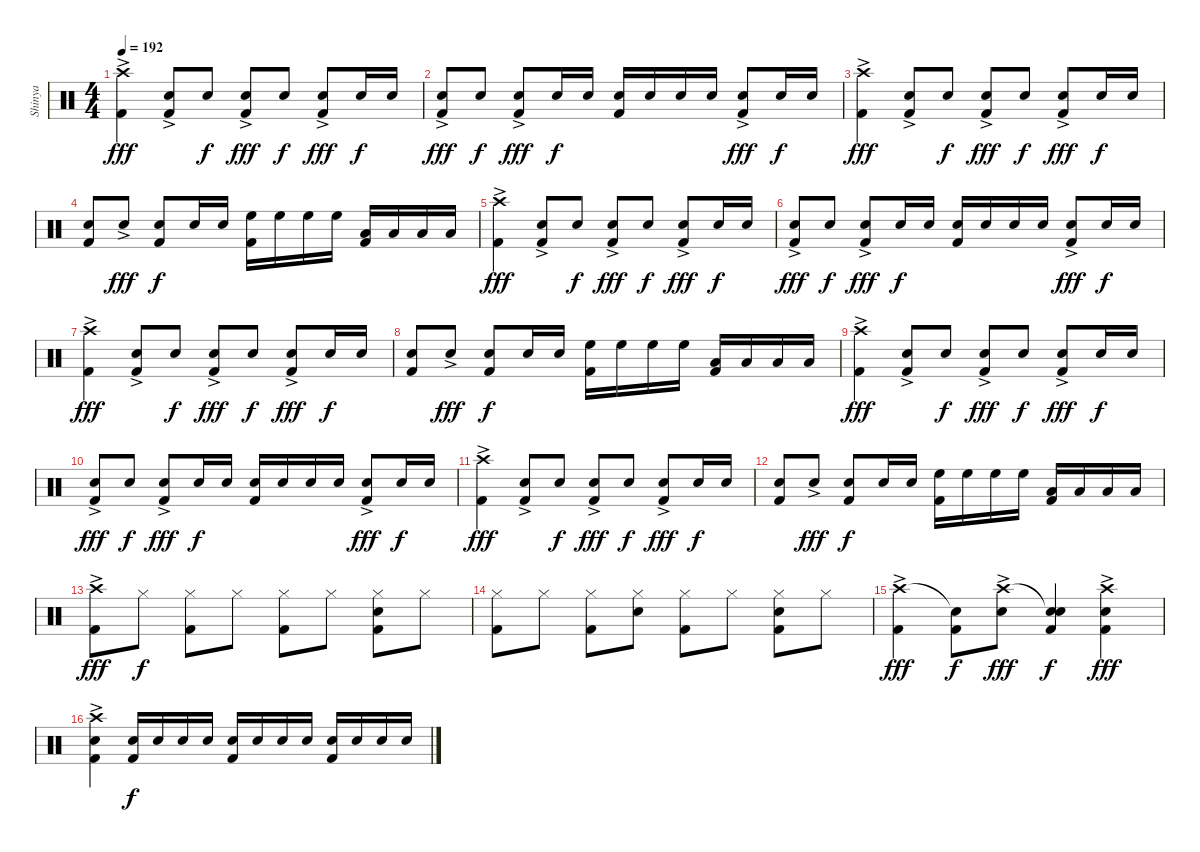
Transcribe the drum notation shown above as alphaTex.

\track ("Shinya" "Shinya") {instrument percussion}
\staff {score}
\articulation defaults
\ts (4 4)
\tempo 192
\clef neutral
\ks c
("Crash high (hit)"{ac} "Kick (hit) 2").4{dy fff} ("Snare (hit) 2"{ac} "Kick (hit) 2").8 "Snare (hit) 2".8{dy f} ("Snare (hit) 2"{ac} "Kick (hit) 2").8{dy fff} "Snare (hit) 2".8{dy f} ("Snare (hit) 2"{ac} "Kick (hit) 2").8{dy fff} "Snare (hit) 2".16{dy f} "Snare (hit) 2".16 |
("Snare (hit) 2"{ac} "Kick (hit) 2").8{dy fff} "Snare (hit) 2".8{dy f} ("Snare (hit) 2"{ac} "Kick (hit) 2").8{dy fff} "Snare (hit) 2".16{dy f} "Snare (hit) 2".16 ("Snare (hit) 2" "Kick (hit) 2").16 "Snare (hit) 2".16 "Snare (hit) 2".16 "Snare (hit) 2".16 ("Snare (hit) 2"{ac} "Kick (hit) 2").8{dy fff} "Snare (hit) 2".16{dy f} "Snare (hit) 2".16 |
("Crash high (hit)"{ac} "Kick (hit) 2").4{dy fff} ("Snare (hit) 2"{ac} "Kick (hit) 2").8 "Snare (hit) 2".8{dy f} ("Snare (hit) 2"{ac} "Kick (hit) 2").8{dy fff} "Snare (hit) 2".8{dy f} ("Snare (hit) 2"{ac} "Kick (hit) 2").8{dy fff} "Snare (hit) 2".16{dy f} "Snare (hit) 2".16 |
("Snare (hit) 2" "Kick (hit) 2").8 "Snare (hit) 2"{ac}.8{dy fff} ("Snare (hit) 2" "Kick (hit) 2").8{dy f} "Snare (hit) 2".16 "Snare (hit) 2".16 ("High Floor Tom (hit)" "Kick (hit) 2").16 "High Floor Tom (hit)".16 "High Floor Tom (hit)".16 "High Floor Tom (hit)".16 ("Low Tom (hit)" "Kick (hit) 2").16 "Low Tom (hit)".16 "Low Tom (hit)".16 "Low Tom (hit)".16 |
("Crash high (hit)"{ac} "Kick (hit) 2").4{dy fff} ("Snare (hit) 2"{ac} "Kick (hit) 2").8 "Snare (hit) 2".8{dy f} ("Snare (hit) 2"{ac} "Kick (hit) 2").8{dy fff} "Snare (hit) 2".8{dy f} ("Snare (hit) 2"{ac} "Kick (hit) 2").8{dy fff} "Snare (hit) 2".16{dy f} "Snare (hit) 2".16 |
("Snare (hit) 2"{ac} "Kick (hit) 2").8{dy fff} "Snare (hit) 2".8{dy f} ("Snare (hit) 2"{ac} "Kick (hit) 2").8{dy fff} "Snare (hit) 2".16{dy f} "Snare (hit) 2".16 ("Snare (hit) 2" "Kick (hit) 2").16 "Snare (hit) 2".16 "Snare (hit) 2".16 "Snare (hit) 2".16 ("Snare (hit) 2"{ac} "Kick (hit) 2").8{dy fff} "Snare (hit) 2".16{dy f} "Snare (hit) 2".16 |
("Crash high (hit)"{ac} "Kick (hit) 2").4{dy fff} ("Snare (hit) 2"{ac} "Kick (hit) 2").8 "Snare (hit) 2".8{dy f} ("Snare (hit) 2"{ac} "Kick (hit) 2").8{dy fff} "Snare (hit) 2".8{dy f} ("Snare (hit) 2"{ac} "Kick (hit) 2").8{dy fff} "Snare (hit) 2".16{dy f} "Snare (hit) 2".16 |
("Snare (hit) 2" "Kick (hit) 2").8 "Snare (hit) 2"{ac}.8{dy fff} ("Snare (hit) 2" "Kick (hit) 2").8{dy f} "Snare (hit) 2".16 "Snare (hit) 2".16 ("High Floor Tom (hit)" "Kick (hit) 2").16 "High Floor Tom (hit)".16 "High Floor Tom (hit)".16 "High Floor Tom (hit)".16 ("Low Tom (hit)" "Kick (hit) 2").16 "Low Tom (hit)".16 "Low Tom (hit)".16 "Low Tom (hit)".16 |
("Crash high (hit)"{ac} "Kick (hit) 2").4{dy fff} ("Snare (hit) 2"{ac} "Kick (hit) 2").8 "Snare (hit) 2".8{dy f} ("Snare (hit) 2"{ac} "Kick (hit) 2").8{dy fff} "Snare (hit) 2".8{dy f} ("Snare (hit) 2"{ac} "Kick (hit) 2").8{dy fff} "Snare (hit) 2".16{dy f} "Snare (hit) 2".16 |
("Snare (hit) 2"{ac} "Kick (hit) 2").8{dy fff} "Snare (hit) 2".8{dy f} ("Snare (hit) 2"{ac} "Kick (hit) 2").8{dy fff} "Snare (hit) 2".16{dy f} "Snare (hit) 2".16 ("Snare (hit) 2" "Kick (hit) 2").16 "Snare (hit) 2".16 "Snare (hit) 2".16 "Snare (hit) 2".16 ("Snare (hit) 2"{ac} "Kick (hit) 2").8{dy fff} "Snare (hit) 2".16{dy f} "Snare (hit) 2".16 |
("Crash high (hit)"{ac} "Kick (hit) 2").4{dy fff} ("Snare (hit) 2"{ac} "Kick (hit) 2").8 "Snare (hit) 2".8{dy f} ("Snare (hit) 2"{ac} "Kick (hit) 2").8{dy fff} "Snare (hit) 2".8{dy f} ("Snare (hit) 2"{ac} "Kick (hit) 2").8{dy fff} "Snare (hit) 2".16{dy f} "Snare (hit) 2".16 |
("Snare (hit) 2" "Kick (hit) 2").8 "Snare (hit) 2"{ac}.8{dy fff} ("Snare (hit) 2" "Kick (hit) 2").8{dy f} "Snare (hit) 2".16 "Snare (hit) 2".16 ("High Floor Tom (hit)" "Kick (hit) 2").16 "High Floor Tom (hit)".16 "High Floor Tom (hit)".16 "High Floor Tom (hit)".16 ("Low Tom (hit)" "Kick (hit) 2").16 "Low Tom (hit)".16 "Low Tom (hit)".16 "Low Tom (hit)".16 |
("Crash high (hit)"{ac} "Kick (hit) 2").8{dy fff} "Hi-Hat (closed)".8{dy f} ("Hi-Hat (closed)" "Kick (hit) 2").8 "Hi-Hat (closed)".8 ("Hi-Hat (closed)" "Kick (hit) 2").8 "Hi-Hat (closed)".8 ("Hi-Hat (closed)" "Snare (hit) 2" "Kick (hit) 2").8 "Hi-Hat (closed)".8 |
("Hi-Hat (closed)" "Kick (hit) 2").8 "Hi-Hat (closed)".8 ("Hi-Hat (closed)" "Kick (hit) 2").8 ("Hi-Hat (closed)" "Snare (hit) 2").8 ("Hi-Hat (closed)" "Kick (hit) 2").8 "Hi-Hat (closed)".8 ("Hi-Hat (closed)" "Snare (hit) 2" "Kick (hit) 2").8 "Hi-Hat (closed)".8 |
("Crash high (hit)"{ac} "Kick (hit) 2").4{dy fff} ("Snare (hit)"{t} "Kick (hit) 2").8{dy f} ("Crash high (hit)"{ac} "Snare (hit) 2").8{dy fff} ("Snare (hit)"{t} "Snare (hit) 2" "Kick (hit) 2").4{dy f} ("Crash high (hit)"{ac} "Snare (hit) 2" "Kick (hit) 2").4{dy fff} |
("Crash high (hit)"{ac} "Snare (hit) 2" "Kick (hit) 2").4 ("Snare (hit) 2" "Kick (hit) 2").16{dy f} "Snare (hit) 2".16 "Snare (hit) 2".16 "Snare (hit) 2".16 ("Snare (hit) 2" "Kick (hit) 2").16 "Snare (hit) 2".16 "Snare (hit) 2".16 "Snare (hit) 2".16 ("Snare (hit) 2" "Kick (hit) 2").16 "Snare (hit) 2".16 "Snare (hit) 2".16 "Snare (hit) 2".16
